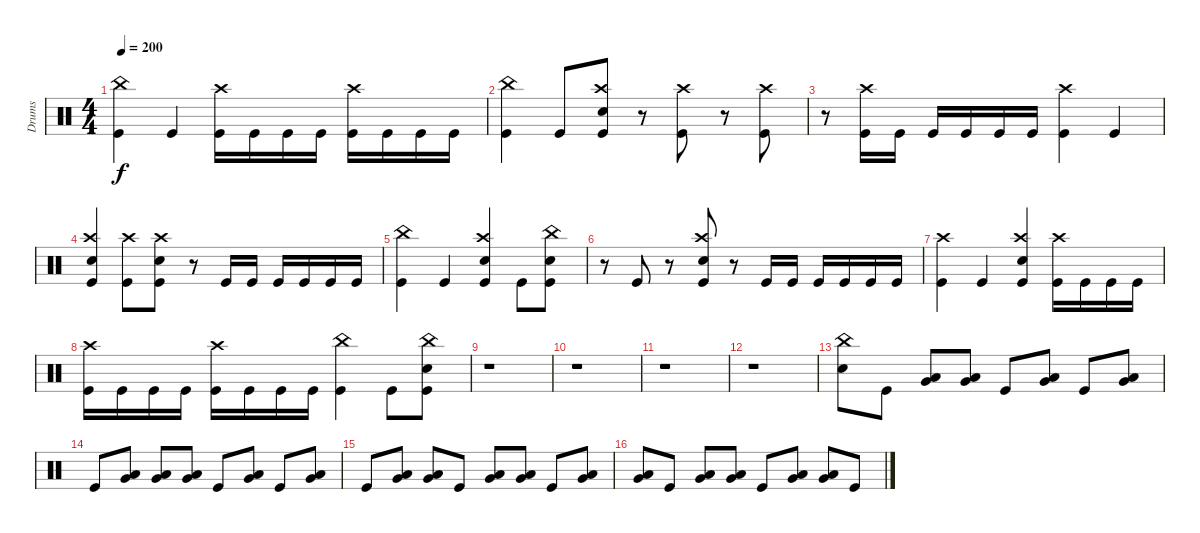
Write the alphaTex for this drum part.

\track ("Drums" "Drums") {instrument percussion}
\staff {score}
\articulation defaults
\ts (4 4)
\tempo 200
\clef neutral
\ks c
("China (hit)" "Kick (hit)").4{dy f} "Kick (hit)".4 ("Crash high (hit)" "Kick (hit)").16 "Kick (hit)".16 "Kick (hit)".16 "Kick (hit)".16 ("Crash high (hit)" "Kick (hit)").16 "Kick (hit)".16 "Kick (hit)".16 "Kick (hit)".16 |
("China (hit)" "Kick (hit)").4 "Kick (hit)".8 ("Crash high (hit)" "Snare (hit) 2" "Kick (hit)").8 r.8 ("Crash high (hit)" "Kick (hit)").8 r.8 ("Crash high (hit)" "Kick (hit)").8 |
r.8 ("Crash high (hit)" "Kick (hit)").16 "Kick (hit)".16 "Kick (hit)".16 "Kick (hit)".16 "Kick (hit)".16 "Kick (hit)".16 ("Crash high (hit)" "Kick (hit)").4 "Kick (hit)".4 |
("Crash high (hit)" "Snare (hit) 2" "Kick (hit)").4 ("Crash high (hit)" "Kick (hit)").8 ("Crash high (hit)" "Snare (hit) 2" "Kick (hit)").8 r.8 "Kick (hit)".16 "Kick (hit)".16 "Kick (hit)".16 "Kick (hit)".16 "Kick (hit)".16 "Kick (hit)".16 |
("China (hit)" "Kick (hit)").4 "Kick (hit)".4 ("Crash high (hit)" "Snare (hit) 2" "Kick (hit)").4 "Kick (hit)".8 ("China (hit)" "Snare (hit) 2" "Kick (hit)").8 |
r.8 "Kick (hit)".8 r.8 ("Crash high (hit)" "Snare (hit) 2" "Kick (hit)").8 r.8 "Kick (hit)".16 "Kick (hit)".16 "Kick (hit)".16 "Kick (hit)".16 "Kick (hit)".16 "Kick (hit)".16 |
("Crash high (hit)" "Kick (hit)").4 "Kick (hit)".4 ("Crash high (hit)" "Snare (hit) 2" "Kick (hit)").4 ("Crash high (hit)" "Kick (hit)").16 "Kick (hit)".16 "Kick (hit)".16 "Kick (hit)".16 |
("Crash high (hit)" "Kick (hit)").16 "Kick (hit)".16 "Kick (hit)".16 "Kick (hit)".16 ("Crash high (hit)" "Kick (hit)").16 "Kick (hit)".16 "Kick (hit)".16 "Kick (hit)".16 ("China (hit)" "Kick (hit)").4 "Kick (hit)".8 ("China (hit)" "Snare (hit) 2" "Kick (hit)").8 |
r.1 |
r.1 |
r.1 |
r.1 |
("China (hit)" "Snare (hit) 2").8 "Kick (hit)".8 ("Low Tom (hit)" "Very Low Tom (hit)").8 ("Low Tom (hit)" "Very Low Tom (hit)").8 "Kick (hit)".8 ("Low Tom (hit)" "Very Low Tom (hit)").8 "Kick (hit)".8 ("Low Tom (hit)" "Very Low Tom (hit)").8 |
"Kick (hit)".8 ("Low Tom (hit)" "Very Low Tom (hit)").8 ("Low Tom (hit)" "Very Low Tom (hit)").8 ("Low Tom (hit)" "Very Low Tom (hit)").8 "Kick (hit)".8 ("Low Tom (hit)" "Very Low Tom (hit)").8 "Kick (hit)".8 ("Low Tom (hit)" "Very Low Tom (hit)").8 |
"Kick (hit)".8 ("Low Tom (hit)" "Very Low Tom (hit)").8 ("Low Tom (hit)" "Very Low Tom (hit)").8 "Kick (hit)".8 ("Low Tom (hit)" "Very Low Tom (hit)").8 ("Low Tom (hit)" "Very Low Tom (hit)").8 "Kick (hit)".8 ("Low Tom (hit)" "Very Low Tom (hit)").8 |
("Low Tom (hit)" "Very Low Tom (hit)").8 "Kick (hit)".8 ("Low Tom (hit)" "Very Low Tom (hit)").8 ("Low Tom (hit)" "Very Low Tom (hit)").8 "Kick (hit)".8 ("Low Tom (hit)" "Very Low Tom (hit)").8 ("Low Tom (hit)" "Very Low Tom (hit)").8 "Kick (hit)".8
